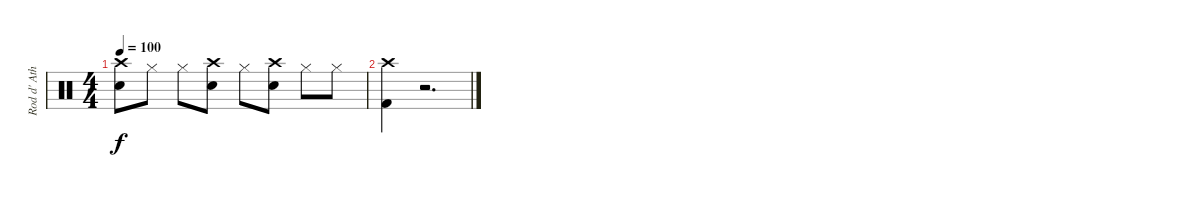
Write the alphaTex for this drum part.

\track ("Rod d' Ath" "Rod d' Ath") {instrument percussion}
\staff {score}
\articulation defaults
\ts (4 4)
\tempo 100
\clef neutral
\ks c
("Snare (hit) 2" "Crash high (hit)").8{dy f} "Hi-Hat (closed)".8 "Hi-Hat (closed)".8 ("Snare (hit) 2" "Crash high (hit)").8 "Hi-Hat (closed)".8 ("Crash high (hit)" "Snare (hit) 2").8 "Hi-Hat (closed)".8 "Hi-Hat (closed)".8 |
("Crash high (hit)" "Kick (hit) 2").4 r.2{d}
